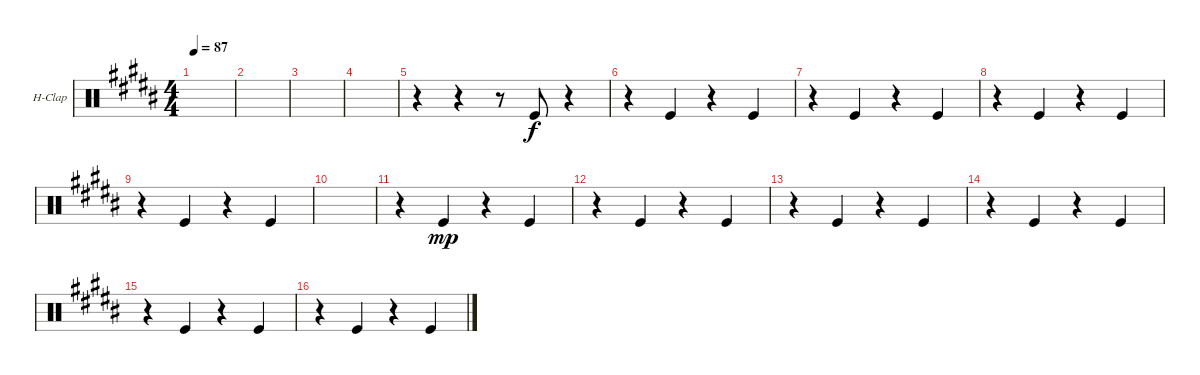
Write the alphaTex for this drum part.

\defaultSystemsLayout 4
\bracketExtendMode groupsimilarinstruments
\firstSystemTrackNameOrientation horizontal
\otherSystemsTrackNameOrientation horizontal
\track ("Hand Clap" "H-Clap") {instrument percussion}
\staff {score}
\articulation defaults
\ts (4 4)
\scale
0.394725
\tempo 87
\accidentals auto
\clef neutral
\ottava regular
\simile none
\ks b
|
\scale
0.316304 |
\scale
0.289111 |
|
r.4 r.4 r.8 "Kick (hit)".8 r.4 |
r.4 "Kick (hit)".4 r.4 "Kick (hit)".4 |
r.4 "Kick (hit)".4 r.4 "Kick (hit)".4 |
r.4 "Kick (hit)".4 r.4 "Kick (hit)".4 |
r.4 "Kick (hit)".4 r.4 "Kick (hit)".4 |
|
r.4 "Kick (hit)".4{dy mp} r.4 "Kick (hit)".4 |
r.4 "Kick (hit)".4 r.4 "Kick (hit)".4 |
r.4 "Kick (hit)".4 r.4 "Kick (hit)".4 |
r.4 "Kick (hit)".4 r.4 "Kick (hit)".4 |
r.4 "Kick (hit)".4 r.4 "Kick (hit)".4 |
r.4 "Kick (hit)".4 r.4 "Kick (hit)".4
